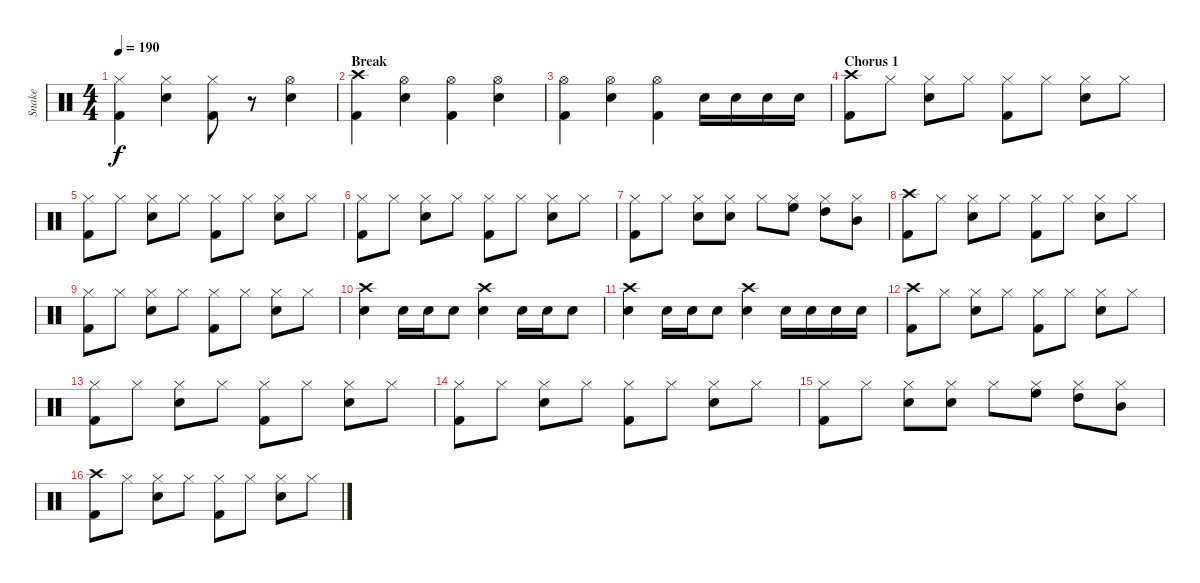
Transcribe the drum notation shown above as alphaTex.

\track ("Snake" "Snake") {instrument percussion}
\staff {score}
\articulation defaults
\ts (4 4)
\tempo 190
\clef neutral
\ks c
("Hi-Hat (closed)" "Kick (hit) 2").4{dy f} ("Hi-Hat (closed)" "Snare (hit) 2").4 ("Hi-Hat (closed)" "Kick (hit) 2").8 r.8 ("Hi-Hat (open)" "Snare (hit) 2").4 |
\section ("" "Break")
("Crash high (hit)" "Kick (hit) 2").4 ("Hi-Hat (open)" "Snare (hit) 2").4 ("Hi-Hat (open)" "Kick (hit) 2").4 ("Hi-Hat (open)" "Snare (hit) 2").4 |
("Hi-Hat (open)" "Kick (hit) 2").4 ("Hi-Hat (open)" "Snare (hit) 2").4 ("Hi-Hat (open)" "Kick (hit) 2").4 "Snare (hit) 2".16 "Snare (hit) 2".16 "Snare (hit) 2".16 "Snare (hit) 2".16 |
\section ("" "Chorus 1")
("Crash high (hit)" "Kick (hit) 2").8 "Hi-Hat (closed)".8 ("Hi-Hat (closed)" "Snare (hit) 2").8 "Hi-Hat (closed)".8 ("Hi-Hat (closed)" "Kick (hit) 2").8 "Hi-Hat (closed)".8 ("Hi-Hat (closed)" "Snare (hit) 2").8 "Hi-Hat (closed)".8 |
("Hi-Hat (closed)" "Kick (hit) 2").8 "Hi-Hat (closed)".8 ("Hi-Hat (closed)" "Snare (hit) 2").8 "Hi-Hat (closed)".8 ("Hi-Hat (closed)" "Kick (hit) 2").8 "Hi-Hat (closed)".8 ("Hi-Hat (closed)" "Snare (hit) 2").8 "Hi-Hat (closed)".8 |
("Hi-Hat (closed)" "Kick (hit) 2").8 "Hi-Hat (closed)".8 ("Hi-Hat (closed)" "Snare (hit) 2").8 "Hi-Hat (closed)".8 ("Hi-Hat (closed)" "Kick (hit) 2").8 "Hi-Hat (closed)".8 ("Hi-Hat (closed)" "Snare (hit) 2").8 "Hi-Hat (closed)".8 |
("Hi-Hat (closed)" "Kick (hit) 2").8 "Hi-Hat (closed)".8 ("Hi-Hat (closed)" "Snare (hit) 2").8 ("Hi-Hat (closed)" "Snare (hit) 2").8 "Hi-Hat (closed)".8 ("Hi-Hat (closed)" "High Floor Tom (hit)").8 ("Hi-Hat (closed)" "High Tom (hit)").8 ("Hi-Hat (closed)" "Mid Tom (hit)").8 |
("Crash high (hit)" "Kick (hit) 2").8 "Hi-Hat (closed)".8 ("Hi-Hat (closed)" "Snare (hit) 2").8 "Hi-Hat (closed)".8 ("Hi-Hat (closed)" "Kick (hit) 2").8 "Hi-Hat (closed)".8 ("Hi-Hat (closed)" "Snare (hit) 2").8 "Hi-Hat (closed)".8 |
("Hi-Hat (closed)" "Kick (hit) 2").8 "Hi-Hat (closed)".8 ("Hi-Hat (closed)" "Snare (hit) 2").8 "Hi-Hat (closed)".8 ("Hi-Hat (closed)" "Kick (hit) 2").8 "Hi-Hat (closed)".8 ("Hi-Hat (closed)" "Snare (hit) 2").8 "Hi-Hat (closed)".8 |
("Crash high (hit)" "Snare (hit) 2").4 "Snare (hit) 2".16 "Snare (hit) 2".16 "Snare (hit) 2".8 ("Crash high (hit)" "Snare (hit) 2").4 "Snare (hit) 2".16 "Snare (hit) 2".16 "Snare (hit) 2".8 |
("Crash high (hit)" "Snare (hit) 2").4 "Snare (hit) 2".16 "Snare (hit) 2".16 "Snare (hit) 2".8 ("Crash high (hit)" "Snare (hit) 2").4 "Snare (hit) 2".16 "Snare (hit) 2".16 "Snare (hit) 2".16 "Snare (hit) 2".16 |
("Crash high (hit)" "Kick (hit) 2").8 "Hi-Hat (closed)".8 ("Hi-Hat (closed)" "Snare (hit) 2").8 "Hi-Hat (closed)".8 ("Hi-Hat (closed)" "Kick (hit) 2").8 "Hi-Hat (closed)".8 ("Hi-Hat (closed)" "Snare (hit) 2").8 "Hi-Hat (closed)".8 |
("Hi-Hat (closed)" "Kick (hit) 2").8 "Hi-Hat (closed)".8 ("Hi-Hat (closed)" "Snare (hit) 2").8 "Hi-Hat (closed)".8 ("Hi-Hat (closed)" "Kick (hit) 2").8 "Hi-Hat (closed)".8 ("Hi-Hat (closed)" "Snare (hit) 2").8 "Hi-Hat (closed)".8 |
("Hi-Hat (closed)" "Kick (hit) 2").8 "Hi-Hat (closed)".8 ("Hi-Hat (closed)" "Snare (hit) 2").8 "Hi-Hat (closed)".8 ("Hi-Hat (closed)" "Kick (hit) 2").8 "Hi-Hat (closed)".8 ("Hi-Hat (closed)" "Snare (hit) 2").8 "Hi-Hat (closed)".8 |
("Hi-Hat (closed)" "Kick (hit) 2").8 "Hi-Hat (closed)".8 ("Hi-Hat (closed)" "Snare (hit) 2").8 ("Hi-Hat (closed)" "Snare (hit) 2").8 "Hi-Hat (closed)".8 ("Hi-Hat (closed)" "High Floor Tom (hit)").8 ("Hi-Hat (closed)" "High Tom (hit)").8 ("Hi-Hat (closed)" "Mid Tom (hit)").8 |
("Crash high (hit)" "Kick (hit) 2").8 "Hi-Hat (closed)".8 ("Hi-Hat (closed)" "Snare (hit) 2").8 "Hi-Hat (closed)".8 ("Hi-Hat (closed)" "Kick (hit) 2").8 "Hi-Hat (closed)".8 ("Hi-Hat (closed)" "Snare (hit) 2").8 "Hi-Hat (closed)".8
